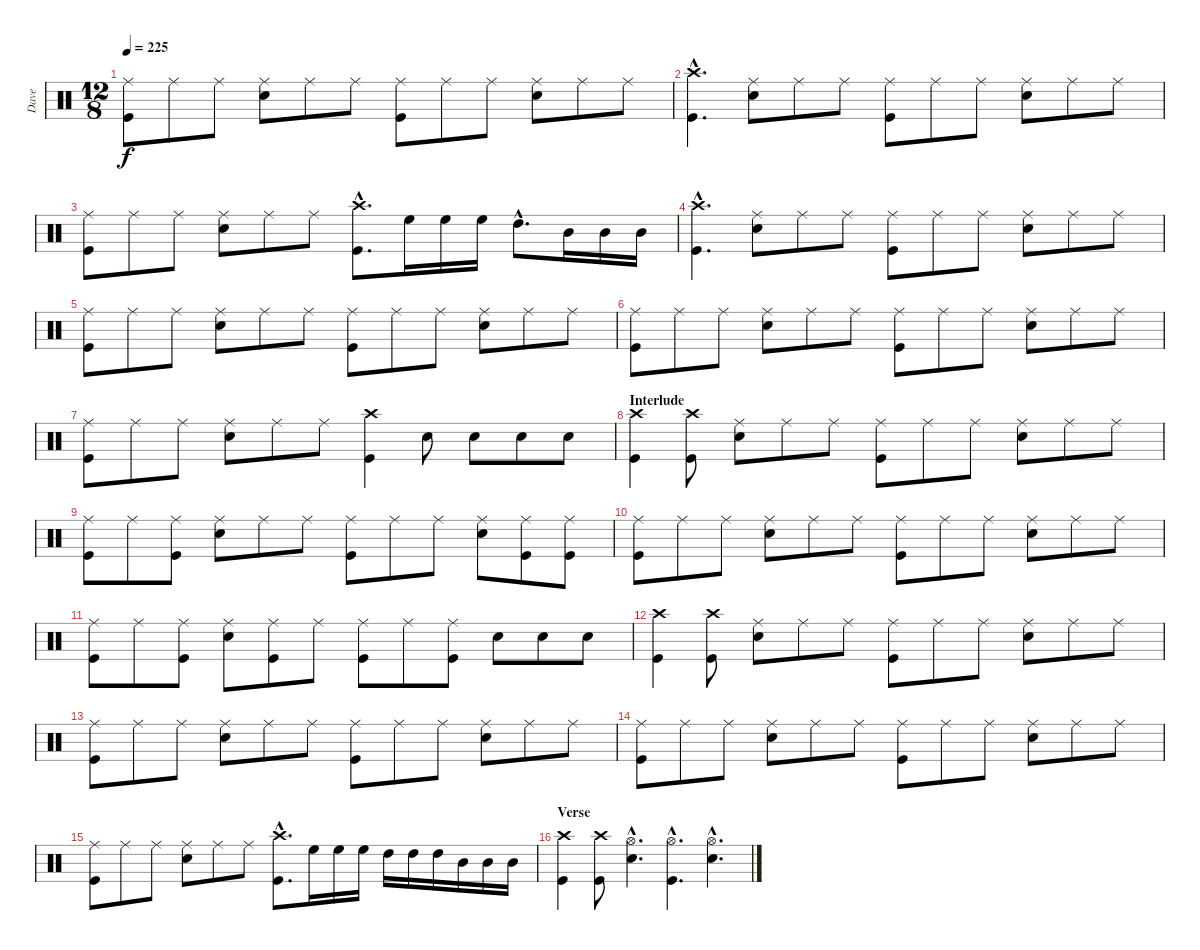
\track ("Dave" "Dave") {instrument percussion}
\staff {score}
\articulation defaults
\ts (12 8)
\tempo 225
\clef neutral
\ks c
("Ride (middle)" "Kick (hit)").8{dy f} "Ride (middle)".8 "Ride (middle)".8 ("Ride (middle)" "Snare (hit) 2").8 "Ride (middle)".8 "Ride (middle)".8 ("Ride (middle)" "Kick (hit)").8 "Ride (middle)".8 "Ride (middle)".8 ("Ride (middle)" "Snare (hit) 2").8 "Ride (middle)".8 "Ride (middle)".8 |
("Crash high (hit)"{hac} "Kick (hit)"{hac}).4{d} ("Ride (middle)" "Snare (hit) 2").8 "Ride (middle)".8 "Ride (middle)".8 ("Ride (middle)" "Kick (hit)").8 "Ride (middle)".8 "Ride (middle)".8 ("Ride (middle)" "Snare (hit) 2").8 "Ride (middle)".8 "Ride (middle)".8 |
("Ride (middle)" "Kick (hit)").8 "Ride (middle)".8 "Ride (middle)".8 ("Ride (middle)" "Snare (hit) 2").8 "Ride (middle)".8 "Ride (middle)".8 ("Crash high (hit)"{hac} "Kick (hit)"{hac}).8{d} "High Floor Tom (hit)".16 "High Floor Tom (hit)".16 "High Floor Tom (hit)".16 "High Tom (hit)"{hac}.8{d} "Mid Tom (hit)".16 "Mid Tom (hit)".16 "Mid Tom (hit)".16 |
("Crash high (hit)"{hac} "Kick (hit)"{hac}).4{d} ("Ride (middle)" "Snare (hit) 2").8 "Ride (middle)".8 "Ride (middle)".8 ("Ride (middle)" "Kick (hit)").8 "Ride (middle)".8 "Ride (middle)".8 ("Ride (middle)" "Snare (hit) 2").8 "Ride (middle)".8 "Ride (middle)".8 |
("Ride (middle)" "Kick (hit)").8 "Ride (middle)".8 "Ride (middle)".8 ("Ride (middle)" "Snare (hit) 2").8 "Ride (middle)".8 "Ride (middle)".8 ("Ride (middle)" "Kick (hit)").8 "Ride (middle)".8 "Ride (middle)".8 ("Ride (middle)" "Snare (hit) 2").8 "Ride (middle)".8 "Ride (middle)".8 |
("Ride (middle)" "Kick (hit)").8 "Ride (middle)".8 "Ride (middle)".8 ("Ride (middle)" "Snare (hit) 2").8 "Ride (middle)".8 "Ride (middle)".8 ("Ride (middle)" "Kick (hit)").8 "Ride (middle)".8 "Ride (middle)".8 ("Ride (middle)" "Snare (hit) 2").8 "Ride (middle)".8 "Ride (middle)".8 |
("Ride (middle)" "Kick (hit)").8 "Ride (middle)".8 "Ride (middle)".8 ("Ride (middle)" "Snare (hit) 2").8 "Ride (middle)".8 "Ride (middle)".8 ("Crash high (hit)" "Kick (hit)").4 "Snare (hit) 2".8 "Snare (hit) 2".8 "Snare (hit) 2".8 "Snare (hit) 2".8 |
\section ("" "Interlude")
("Crash high (hit)" "Kick (hit)").4 ("Crash high (hit)" "Kick (hit)").8 ("Ride (middle)" "Snare (hit) 2").8 "Ride (middle)".8 "Ride (middle)".8 ("Ride (middle)" "Kick (hit)").8 "Ride (middle)".8 "Ride (middle)".8 ("Ride (middle)" "Snare (hit) 2").8 "Ride (middle)".8 "Ride (middle)".8 |
("Ride (middle)" "Kick (hit)").8 "Ride (middle)".8 ("Ride (middle)" "Kick (hit)").8 ("Ride (middle)" "Snare (hit) 2").8 "Ride (middle)".8 "Ride (middle)".8 ("Ride (middle)" "Kick (hit)").8 "Ride (middle)".8 "Ride (middle)".8 ("Ride (middle)" "Snare (hit) 2").8 ("Ride (middle)" "Kick (hit)").8 ("Ride (middle)" "Kick (hit)").8 |
("Ride (middle)" "Kick (hit)").8 "Ride (middle)".8 "Ride (middle)".8 ("Ride (middle)" "Snare (hit) 2").8 "Ride (middle)".8 "Ride (middle)".8 ("Ride (middle)" "Kick (hit)").8 "Ride (middle)".8 "Ride (middle)".8 ("Ride (middle)" "Snare (hit) 2").8 "Ride (middle)".8 "Ride (middle)".8 |
("Ride (middle)" "Kick (hit)").8 "Ride (middle)".8 ("Ride (middle)" "Kick (hit)").8 ("Ride (middle)" "Snare (hit) 2").8 ("Ride (middle)" "Kick (hit)").8 "Ride (middle)".8 ("Ride (middle)" "Kick (hit)").8 "Ride (middle)".8 ("Ride (middle)" "Kick (hit)").8 "Snare (hit) 2".8 "Snare (hit) 2".8 "Snare (hit) 2".8 |
("Crash high (hit)" "Kick (hit)").4 ("Crash high (hit)" "Kick (hit)").8 ("Ride (middle)" "Snare (hit) 2").8 "Ride (middle)".8 "Ride (middle)".8 ("Ride (middle)" "Kick (hit)").8 "Ride (middle)".8 "Ride (middle)".8 ("Ride (middle)" "Snare (hit) 2").8 "Ride (middle)".8 "Ride (middle)".8 |
("Ride (middle)" "Kick (hit)").8 "Ride (middle)".8 "Ride (middle)".8 ("Ride (middle)" "Snare (hit) 2").8 "Ride (middle)".8 "Ride (middle)".8 ("Ride (middle)" "Kick (hit)").8 "Ride (middle)".8 "Ride (middle)".8 ("Ride (middle)" "Snare (hit) 2").8 "Ride (middle)".8 "Ride (middle)".8 |
("Ride (middle)" "Kick (hit)").8 "Ride (middle)".8 "Ride (middle)".8 ("Ride (middle)" "Snare (hit) 2").8 "Ride (middle)".8 "Ride (middle)".8 ("Ride (middle)" "Kick (hit)").8 "Ride (middle)".8 "Ride (middle)".8 ("Ride (middle)" "Snare (hit) 2").8 "Ride (middle)".8 "Ride (middle)".8 |
("Ride (middle)" "Kick (hit)").8 "Ride (middle)".8 "Ride (middle)".8 ("Ride (middle)" "Snare (hit) 2").8 "Ride (middle)".8 "Ride (middle)".8 ("Crash high (hit)"{hac} "Kick (hit)"{hac}).8{d} "High Floor Tom (hit)".16 "High Floor Tom (hit)".16 "High Floor Tom (hit)".16 "High Tom (hit)".16 "High Tom (hit)".16 "High Tom (hit)".16 "Mid Tom (hit)".16 "Mid Tom (hit)".16 "Mid Tom (hit)".16 |
\section ("" "Verse")
("Crash high (hit)" "Kick (hit)").4 ("Crash high (hit)" "Kick (hit)").8 ("Hi-Hat (open)"{hac} "Snare (hit) 2"{hac}).4{d} ("Hi-Hat (open)"{hac} "Kick (hit)"{hac}).4{d} ("Hi-Hat (open)"{hac} "Snare (hit) 2"{hac}).4{d}
